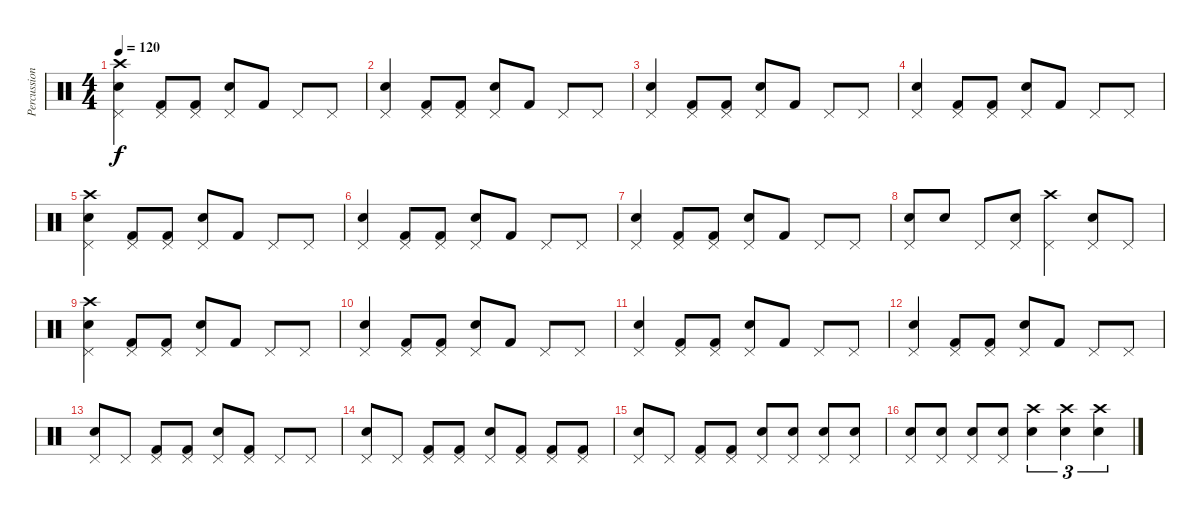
\track ("Percussion" "Percussion") {instrument percussion}
\staff {score}
\articulation defaults
\ts (4 4)
\tempo 120
\clef neutral
\ks c
("Pedal Hi-Hat (hit)" "Electric Snare (hit)" "Crash high (hit)").4{dy f} ("Pedal Hi-Hat (hit)" "Kick (hit) 2").8 ("Pedal Hi-Hat (hit)" "Kick (hit) 2").8 ("Pedal Hi-Hat (hit)" "Electric Snare (hit)").8 "Kick (hit) 2".8 "Pedal Hi-Hat (hit)".8 "Pedal Hi-Hat (hit)".8 |
("Pedal Hi-Hat (hit)" "Electric Snare (hit)").4 ("Pedal Hi-Hat (hit)" "Kick (hit) 2").8 ("Pedal Hi-Hat (hit)" "Kick (hit) 2").8 ("Pedal Hi-Hat (hit)" "Electric Snare (hit)").8 "Kick (hit) 2".8 "Pedal Hi-Hat (hit)".8 "Pedal Hi-Hat (hit)".8 |
("Pedal Hi-Hat (hit)" "Electric Snare (hit)").4 ("Pedal Hi-Hat (hit)" "Kick (hit) 2").8 ("Pedal Hi-Hat (hit)" "Kick (hit) 2").8 ("Pedal Hi-Hat (hit)" "Electric Snare (hit)").8 "Kick (hit) 2".8 "Pedal Hi-Hat (hit)".8 "Pedal Hi-Hat (hit)".8 |
("Pedal Hi-Hat (hit)" "Electric Snare (hit)").4 ("Pedal Hi-Hat (hit)" "Kick (hit) 2").8 ("Pedal Hi-Hat (hit)" "Kick (hit) 2").8 ("Pedal Hi-Hat (hit)" "Electric Snare (hit)").8 "Kick (hit) 2".8 "Pedal Hi-Hat (hit)".8 "Pedal Hi-Hat (hit)".8 |
("Pedal Hi-Hat (hit)" "Electric Snare (hit)" "Crash high (hit)").4 ("Pedal Hi-Hat (hit)" "Kick (hit) 2").8 ("Pedal Hi-Hat (hit)" "Kick (hit) 2").8 ("Pedal Hi-Hat (hit)" "Electric Snare (hit)").8 "Kick (hit) 2".8 "Pedal Hi-Hat (hit)".8 "Pedal Hi-Hat (hit)".8 |
("Pedal Hi-Hat (hit)" "Electric Snare (hit)").4 ("Pedal Hi-Hat (hit)" "Kick (hit) 2").8 ("Pedal Hi-Hat (hit)" "Kick (hit) 2").8 ("Pedal Hi-Hat (hit)" "Electric Snare (hit)").8 "Kick (hit) 2".8 "Pedal Hi-Hat (hit)".8 "Pedal Hi-Hat (hit)".8 |
("Pedal Hi-Hat (hit)" "Electric Snare (hit)").4 ("Pedal Hi-Hat (hit)" "Kick (hit) 2").8 ("Pedal Hi-Hat (hit)" "Kick (hit) 2").8 ("Pedal Hi-Hat (hit)" "Electric Snare (hit)").8 "Kick (hit) 2".8 "Pedal Hi-Hat (hit)".8 "Pedal Hi-Hat (hit)".8 |
("Pedal Hi-Hat (hit)" "Electric Snare (hit)").8 "Electric Snare (hit)".8 "Pedal Hi-Hat (hit)".8 ("Pedal Hi-Hat (hit)" "Electric Snare (hit)").8 ("Pedal Hi-Hat (hit)" "Crash high (hit)").4 ("Pedal Hi-Hat (hit)" "Electric Snare (hit)").8 "Pedal Hi-Hat (hit)".8 |
("Pedal Hi-Hat (hit)" "Electric Snare (hit)" "Crash high (hit)").4 ("Pedal Hi-Hat (hit)" "Kick (hit) 2").8 ("Pedal Hi-Hat (hit)" "Kick (hit) 2").8 ("Pedal Hi-Hat (hit)" "Electric Snare (hit)").8 "Kick (hit) 2".8 "Pedal Hi-Hat (hit)".8 "Pedal Hi-Hat (hit)".8 |
("Pedal Hi-Hat (hit)" "Electric Snare (hit)").4 ("Pedal Hi-Hat (hit)" "Kick (hit) 2").8 ("Pedal Hi-Hat (hit)" "Kick (hit) 2").8 ("Pedal Hi-Hat (hit)" "Electric Snare (hit)").8 "Kick (hit) 2".8 "Pedal Hi-Hat (hit)".8 "Pedal Hi-Hat (hit)".8 |
("Pedal Hi-Hat (hit)" "Electric Snare (hit)").4 ("Pedal Hi-Hat (hit)" "Kick (hit) 2").8 ("Pedal Hi-Hat (hit)" "Kick (hit) 2").8 ("Pedal Hi-Hat (hit)" "Electric Snare (hit)").8 "Kick (hit) 2".8 "Pedal Hi-Hat (hit)".8 "Pedal Hi-Hat (hit)".8 |
("Pedal Hi-Hat (hit)" "Electric Snare (hit)").4 ("Pedal Hi-Hat (hit)" "Kick (hit) 2").8 ("Pedal Hi-Hat (hit)" "Kick (hit) 2").8 ("Pedal Hi-Hat (hit)" "Electric Snare (hit)").8 "Kick (hit) 2".8 "Pedal Hi-Hat (hit)".8 "Pedal Hi-Hat (hit)".8 |
("Pedal Hi-Hat (hit)" "Electric Snare (hit)").8 "Pedal Hi-Hat (hit)".8 ("Pedal Hi-Hat (hit)" "Kick (hit) 2").8 ("Pedal Hi-Hat (hit)" "Kick (hit) 2").8 ("Pedal Hi-Hat (hit)" "Electric Snare (hit)").8 ("Pedal Hi-Hat (hit)" "Kick (hit) 2").8 "Pedal Hi-Hat (hit)".8 "Pedal Hi-Hat (hit)".8 |
("Pedal Hi-Hat (hit)" "Electric Snare (hit)").8 "Pedal Hi-Hat (hit)".8 ("Pedal Hi-Hat (hit)" "Kick (hit) 2").8 ("Pedal Hi-Hat (hit)" "Kick (hit) 2").8 ("Pedal Hi-Hat (hit)" "Electric Snare (hit)").8 ("Pedal Hi-Hat (hit)" "Kick (hit) 2").8 ("Pedal Hi-Hat (hit)" "Kick (hit) 2").8 ("Pedal Hi-Hat (hit)" "Kick (hit) 2").8 |
("Pedal Hi-Hat (hit)" "Electric Snare (hit)").8 "Pedal Hi-Hat (hit)".8 ("Pedal Hi-Hat (hit)" "Kick (hit) 2").8 ("Pedal Hi-Hat (hit)" "Kick (hit) 2").8 ("Pedal Hi-Hat (hit)" "Electric Snare (hit)").8 ("Pedal Hi-Hat (hit)" "Electric Snare (hit)").8 ("Pedal Hi-Hat (hit)" "Electric Snare (hit)").8 ("Pedal Hi-Hat (hit)" "Electric Snare (hit)").8 |
("Pedal Hi-Hat (hit)" "Electric Snare (hit)").8 ("Pedal Hi-Hat (hit)" "Electric Snare (hit)").8 ("Pedal Hi-Hat (hit)" "Electric Snare (hit)").8 ("Pedal Hi-Hat (hit)" "Electric Snare (hit)").8 ("Electric Snare (hit)" "Crash high (hit)").4{tu (3 2)} ("Electric Snare (hit)" "Crash high (hit)").4{tu (3 2)} ("Electric Snare (hit)" "Crash high (hit)").4{tu (3 2)}
